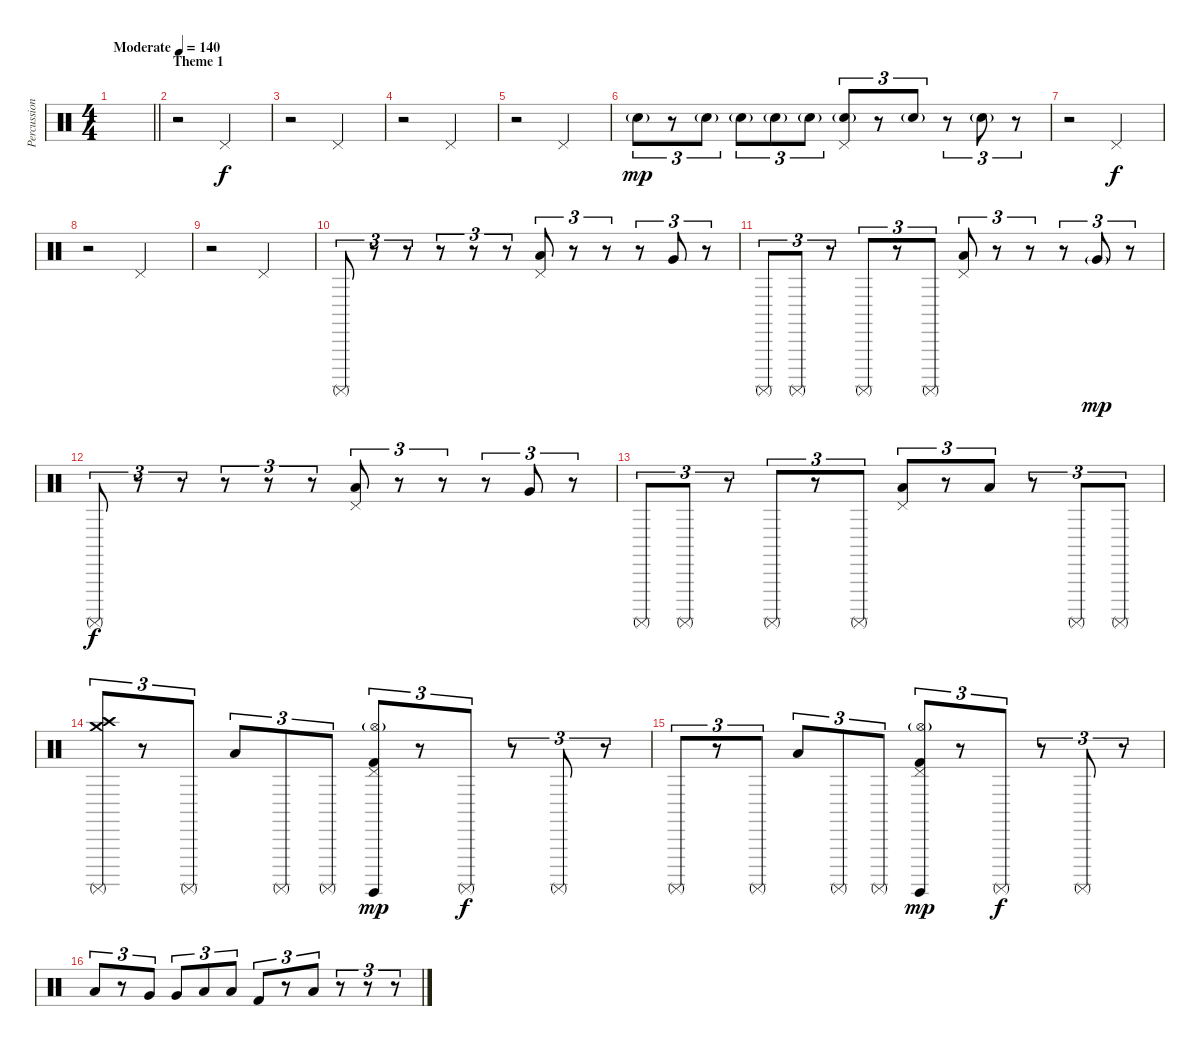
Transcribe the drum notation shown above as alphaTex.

\track ("Percussion" "Percussion") {instrument percussion}
\staff {score}
\articulation defaults
\ts (4 4)
\tempo (140 "Moderate")
\clef neutral
\barLineRight lightlight
\ks c
|
\section ("" "Theme 1")
r.2 "Pedal Hi-Hat (hit)".2 |
r.2 "Pedal Hi-Hat (hit)".2 |
r.2 "Pedal Hi-Hat (hit)".2 |
r.2 "Pedal Hi-Hat (hit)".2 |
"Electric Snare (hit)"{g}.8{tu (3 2) dy mp} r.8{tu (3 2)} "Electric Snare (hit)"{g}.8{tu (3 2)} "Electric Snare (hit)"{g}.8{tu (3 2)} "Electric Snare (hit)"{g}.8{tu (3 2)} "Electric Snare (hit)"{g}.8{tu (3 2)} ("Pedal Hi-Hat (hit)" "Electric Snare (hit)"{g}).8{tu (3 2)} r.8{tu (3 2)} "Electric Snare (hit)"{g}.8{tu (3 2)} r.8{tu (3 2)} "Electric Snare (hit)"{g}.8{tu (3 2)} r.8{tu (3 2)} |
r.2 "Pedal Hi-Hat (hit)".2{dy f} |
r.2 "Pedal Hi-Hat (hit)".2 |
r.2 "Pedal Hi-Hat (hit)".2 |
"Surdo (mute)".8{tu (3 2)} r.8{tu (3 2)} r.8{tu (3 2)} r.8{tu (3 2)} r.8{tu (3 2)} r.8{tu (3 2)} ("Pedal Hi-Hat (hit)" "Low Floor Tom (hit)").8{tu (3 2)} r.8{tu (3 2)} r.8{tu (3 2)} r.8{tu (3 2)} "Very Low Tom (hit)".8{tu (3 2)} r.8{tu (3 2)} |
"Surdo (mute)".8{tu (3 2)} "Surdo (mute)".8{tu (3 2)} r.8{tu (3 2)} "Surdo (mute)".8{tu (3 2)} r.8{tu (3 2)} "Surdo (mute)".8{tu (3 2)} ("Pedal Hi-Hat (hit)" "Low Floor Tom (hit)").8{tu (3 2)} r.8{tu (3 2)} r.8{tu (3 2)} r.8{tu (3 2)} "Very Low Tom (hit)"{g}.8{tu (3 2) dy mp} r.8{tu (3 2)} |
"Surdo (mute)".8{tu (3 2) dy f} r.8{tu (3 2)} r.8{tu (3 2)} r.8{tu (3 2)} r.8{tu (3 2)} r.8{tu (3 2)} ("Pedal Hi-Hat (hit)" "Low Floor Tom (hit)").8{tu (3 2)} r.8{tu (3 2)} r.8{tu (3 2)} r.8{tu (3 2)} "Very Low Tom (hit)".8{tu (3 2)} r.8{tu (3 2)} |
"Surdo (mute)".8{tu (3 2)} "Surdo (mute)".8{tu (3 2)} r.8{tu (3 2)} "Surdo (mute)".8{tu (3 2)} r.8{tu (3 2)} "Surdo (mute)".8{tu (3 2)} ("Pedal Hi-Hat (hit)" "Low Floor Tom (hit)").8{tu (3 2)} r.8{tu (3 2)} "Low Floor Tom (hit)".8{tu (3 2)} r.8{tu (3 2)} "Surdo (mute)".8{tu (3 2)} "Surdo (mute)".8{tu (3 2)} |
("Crash medium (hit)" "Crash high (hit)" "Surdo (mute)").8{tu (3 2)} r.8{tu (3 2)} "Surdo (mute)".8{tu (3 2)} "Low Floor Tom (hit)".8{tu (3 2)} "Surdo (mute)".8{tu (3 2)} "Surdo (mute)".8{tu (3 2)} ("Hi-Hat (open)"{g} "Pedal Hi-Hat (hit)" "Surdo (hit)" "Kick (hit) 2").8{tu (3 2) dy mp} r.8{tu (3 2)} "Surdo (mute)".8{tu (3 2) dy f} r.8{tu (3 2)} "Surdo (mute)".8{tu (3 2)} r.8{tu (3 2)} |
"Surdo (mute)".8{tu (3 2)} r.8{tu (3 2)} "Surdo (mute)".8{tu (3 2)} "Low Floor Tom (hit)".8{tu (3 2)} "Surdo (mute)".8{tu (3 2)} "Surdo (mute)".8{tu (3 2)} ("Hi-Hat (open)"{g} "Pedal Hi-Hat (hit)" "Surdo (hit)" "Kick (hit) 2").8{tu (3 2) dy mp} r.8{tu (3 2)} "Surdo (mute)".8{tu (3 2) dy f} r.8{tu (3 2)} "Surdo (mute)".8{tu (3 2)} r.8{tu (3 2)} |
"Low Floor Tom (hit)".8{tu (3 2)} r.8{tu (3 2)} "Very Low Tom (hit)".8{tu (3 2)} "Very Low Tom (hit)".8{tu (3 2)} "Low Floor Tom (hit)".8{tu (3 2)} "Low Floor Tom (hit)".8{tu (3 2)} "Kick (hit) 2".8{tu (3 2)} r.8{tu (3 2)} "Low Floor Tom (hit)".8{tu (3 2)} r.8{tu (3 2)} r.8{tu (3 2)} r.8{tu (3 2)}
